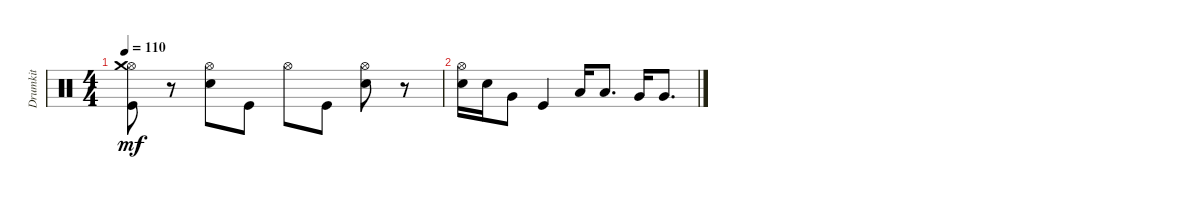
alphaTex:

\track ("Drumkit" "Drumkit") {instrument percussion}
\staff {score}
\articulation defaults
\ts (4 4)
\tempo 110
\clef neutral
\ks c
("Kick (hit)" "Hi-Hat (open)" "Crash medium (hit)").8{dy mf} r.8 ("Hi-Hat (open)" "Snare (hit) 2").8 "Kick (hit)".8 "Hi-Hat (open)".8 "Kick (hit)".8 ("Snare (hit) 2" "Hi-Hat (open)").8 r.8 |
("Snare (hit) 2" "Hi-Hat (open)").16 "Snare (hit) 2".16 "Very Low Tom (hit)".8 "Kick (hit)".4 "Low Tom (hit)".16 "Low Tom (hit)".8{d} "Very Low Tom (hit)".16 "Very Low Tom (hit)".8{d}
